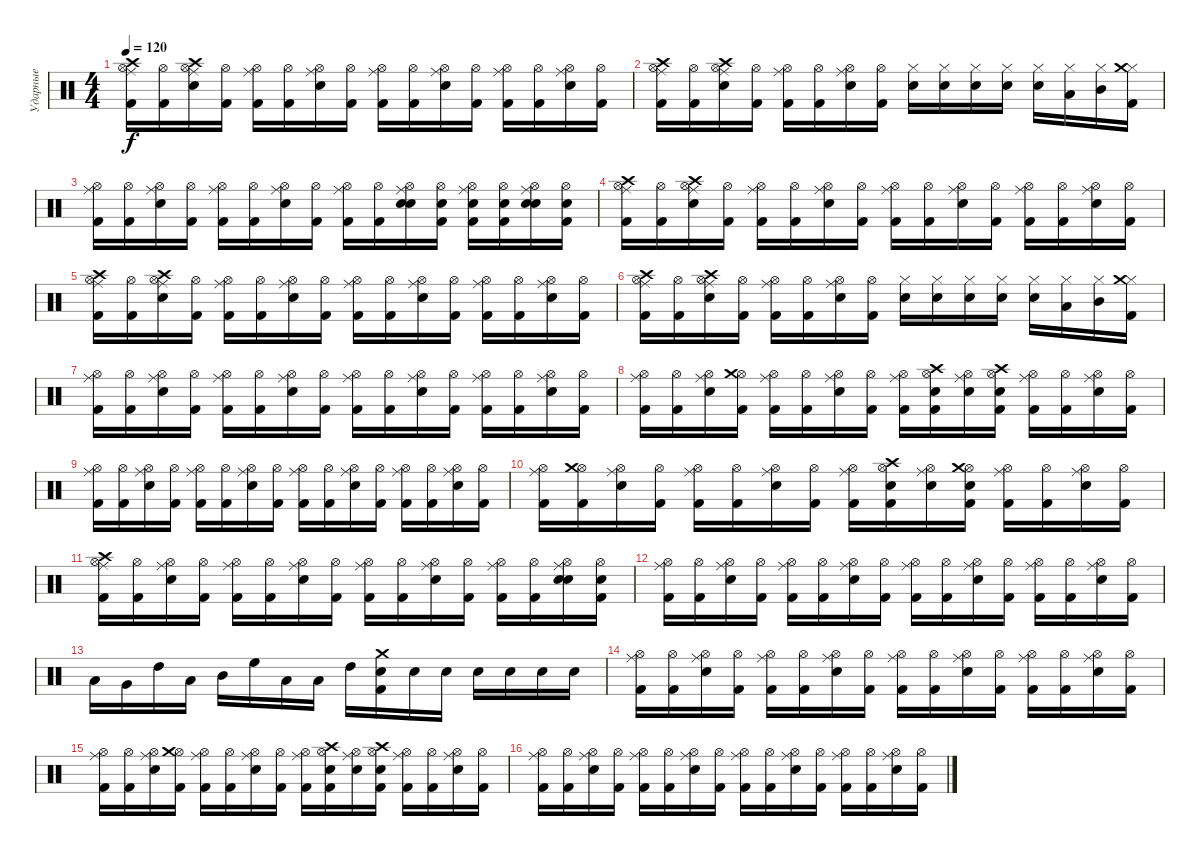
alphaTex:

\track ("Ударные" "Ударные") {instrument percussion}
\staff {score}
\articulation defaults
\ts (4 4)
\tempo 120
\clef neutral
\ks c
("Hi-Hat (open)" "Ride (middle)" "Kick (hit) 2" "Crash high (hit)").16{dy f} ("Hi-Hat (open)" "Kick (hit) 2").16 ("Hi-Hat (open)" "Ride (middle)" "Snare (hit) 2" "Crash high (hit)").16 ("Hi-Hat (open)" "Kick (hit) 2").16 ("Hi-Hat (open)" "Ride (middle)" "Kick (hit) 2").16 ("Hi-Hat (open)" "Kick (hit) 2").16 ("Hi-Hat (open)" "Ride (middle)" "Snare (hit) 2").16 ("Hi-Hat (open)" "Kick (hit) 2").16 ("Hi-Hat (open)" "Ride (middle)" "Kick (hit) 2").16 ("Hi-Hat (open)" "Kick (hit) 2").16 ("Hi-Hat (open)" "Ride (middle)" "Snare (hit) 2").16 ("Hi-Hat (open)" "Kick (hit) 2").16 ("Hi-Hat (open)" "Ride (middle)" "Kick (hit) 2").16 ("Hi-Hat (open)" "Kick (hit) 2").16 ("Hi-Hat (open)" "Ride (middle)" "Snare (hit) 2").16 ("Hi-Hat (open)" "Kick (hit) 2").16 |
("Hi-Hat (open)" "Ride (middle)" "Kick (hit) 2" "Crash high (hit)").16 ("Hi-Hat (open)" "Kick (hit) 2").16 ("Hi-Hat (open)" "Ride (middle)" "Snare (hit) 2" "Crash high (hit)").16 ("Hi-Hat (open)" "Kick (hit) 2").16 ("Hi-Hat (open)" "Ride (middle)" "Kick (hit) 2").16 ("Hi-Hat (open)" "Kick (hit) 2").16 ("Hi-Hat (open)" "Ride (middle)" "Snare (hit) 2").16 ("Hi-Hat (open)" "Kick (hit) 2").16 ("Hi-Hat (closed)" "Electric Snare (hit)").16 ("Hi-Hat (closed)" "Electric Snare (hit)").16 ("Hi-Hat (closed)" "Electric Snare (hit)").16 ("Hi-Hat (closed)" "Electric Snare (hit)").16 ("Hi-Hat (closed)" "Electric Snare (hit)").16 ("Hi-Hat (closed)" "Low Floor Tom (hit)").16 ("Hi-Hat (closed)" "Mid Tom (hit)").16 ("Hi-Hat (closed)" "Kick (hit) 2" "Crash medium (hit)").16 |
("Hi-Hat (open)" "Ride (middle)" "Kick (hit) 2").16 ("Hi-Hat (open)" "Kick (hit) 2").16 ("Hi-Hat (open)" "Ride (middle)" "Snare (hit) 2").16 ("Hi-Hat (open)" "Kick (hit) 2").16 ("Hi-Hat (open)" "Ride (middle)" "Kick (hit) 2").16 ("Hi-Hat (open)" "Kick (hit) 2").16 ("Hi-Hat (open)" "Ride (middle)" "Snare (hit) 2").16 ("Hi-Hat (open)" "Kick (hit) 2").16 ("Hi-Hat (open)" "Ride (middle)" "Kick (hit) 2").16 ("Hi-Hat (open)" "Kick (hit) 2").16 ("Hi-Hat (open)" "Ride (middle)" "Snare (hit) 2" "Electric Snare (hit)").16 ("Hi-Hat (open)" "Kick (hit) 2" "Electric Snare (hit)").16 ("Hi-Hat (open)" "Ride (middle)" "Kick (hit) 2" "Electric Snare (hit)").16 ("Hi-Hat (open)" "Kick (hit) 2" "Electric Snare (hit)").16 ("Hi-Hat (open)" "Ride (middle)" "Snare (hit) 2" "Electric Snare (hit)").16 ("Hi-Hat (open)" "Kick (hit) 2" "Electric Snare (hit)").16 |
("Hi-Hat (open)" "Ride (middle)" "Kick (hit) 2" "Crash high (hit)").16 ("Hi-Hat (open)" "Kick (hit) 2").16 ("Hi-Hat (open)" "Ride (middle)" "Snare (hit) 2" "Crash high (hit)").16 ("Hi-Hat (open)" "Kick (hit) 2").16 ("Hi-Hat (open)" "Ride (middle)" "Kick (hit) 2").16 ("Hi-Hat (open)" "Kick (hit) 2").16 ("Hi-Hat (open)" "Ride (middle)" "Snare (hit) 2").16 ("Hi-Hat (open)" "Kick (hit) 2").16 ("Hi-Hat (open)" "Ride (middle)" "Kick (hit) 2").16 ("Hi-Hat (open)" "Kick (hit) 2").16 ("Hi-Hat (open)" "Ride (middle)" "Snare (hit) 2").16 ("Hi-Hat (open)" "Kick (hit) 2").16 ("Hi-Hat (open)" "Ride (middle)" "Kick (hit) 2").16 ("Hi-Hat (open)" "Kick (hit) 2").16 ("Hi-Hat (open)" "Ride (middle)" "Snare (hit) 2").16 ("Hi-Hat (open)" "Kick (hit) 2").16 |
("Hi-Hat (open)" "Ride (middle)" "Kick (hit) 2" "Crash high (hit)").16 ("Hi-Hat (open)" "Kick (hit) 2").16 ("Hi-Hat (open)" "Ride (middle)" "Snare (hit) 2" "Crash high (hit)").16 ("Hi-Hat (open)" "Kick (hit) 2").16 ("Hi-Hat (open)" "Ride (middle)" "Kick (hit) 2").16 ("Hi-Hat (open)" "Kick (hit) 2").16 ("Hi-Hat (open)" "Ride (middle)" "Snare (hit) 2").16 ("Hi-Hat (open)" "Kick (hit) 2").16 ("Hi-Hat (open)" "Ride (middle)" "Kick (hit) 2").16 ("Hi-Hat (open)" "Kick (hit) 2").16 ("Hi-Hat (open)" "Ride (middle)" "Snare (hit) 2").16 ("Hi-Hat (open)" "Kick (hit) 2").16 ("Hi-Hat (open)" "Ride (middle)" "Kick (hit) 2").16 ("Hi-Hat (open)" "Kick (hit) 2").16 ("Hi-Hat (open)" "Ride (middle)" "Snare (hit) 2").16 ("Hi-Hat (open)" "Kick (hit) 2").16 |
("Hi-Hat (open)" "Ride (middle)" "Kick (hit) 2" "Crash high (hit)").16 ("Hi-Hat (open)" "Kick (hit) 2").16 ("Hi-Hat (open)" "Ride (middle)" "Snare (hit) 2" "Crash high (hit)").16 ("Hi-Hat (open)" "Kick (hit) 2").16 ("Hi-Hat (open)" "Ride (middle)" "Kick (hit) 2").16 ("Hi-Hat (open)" "Kick (hit) 2").16 ("Hi-Hat (open)" "Ride (middle)" "Snare (hit) 2").16 ("Hi-Hat (open)" "Kick (hit) 2").16 ("Hi-Hat (closed)" "Electric Snare (hit)").16 ("Hi-Hat (closed)" "Electric Snare (hit)").16 ("Hi-Hat (closed)" "Electric Snare (hit)").16 ("Hi-Hat (closed)" "Electric Snare (hit)").16 ("Hi-Hat (closed)" "Electric Snare (hit)").16 ("Hi-Hat (closed)" "Low Floor Tom (hit)").16 ("Hi-Hat (closed)" "Mid Tom (hit)").16 ("Hi-Hat (closed)" "Kick (hit) 2" "Crash medium (hit)").16 |
("Hi-Hat (open)" "Ride (middle)" "Kick (hit) 2").16 ("Hi-Hat (open)" "Kick (hit) 2").16 ("Hi-Hat (open)" "Ride (middle)" "Snare (hit) 2").16 ("Hi-Hat (open)" "Kick (hit) 2").16 ("Hi-Hat (open)" "Ride (middle)" "Kick (hit) 2").16 ("Hi-Hat (open)" "Kick (hit) 2").16 ("Hi-Hat (open)" "Ride (middle)" "Snare (hit) 2").16 ("Hi-Hat (open)" "Kick (hit) 2").16 ("Hi-Hat (open)" "Ride (middle)" "Kick (hit) 2").16 ("Hi-Hat (open)" "Kick (hit) 2").16 ("Hi-Hat (open)" "Ride (middle)" "Snare (hit) 2").16 ("Hi-Hat (open)" "Kick (hit) 2").16 ("Hi-Hat (open)" "Ride (middle)" "Kick (hit) 2").16 ("Hi-Hat (open)" "Kick (hit) 2").16 ("Hi-Hat (open)" "Ride (middle)" "Snare (hit) 2").16 ("Hi-Hat (open)" "Kick (hit) 2").16 |
("Hi-Hat (open)" "Ride (middle)" "Kick (hit) 2").16 ("Hi-Hat (open)" "Kick (hit) 2").16 ("Hi-Hat (open)" "Ride (middle)" "Snare (hit) 2").16 ("Hi-Hat (open)" "Kick (hit) 2" "Crash medium (hit)").16 ("Hi-Hat (open)" "Ride (middle)" "Kick (hit) 2").16 ("Hi-Hat (open)" "Kick (hit) 2").16 ("Hi-Hat (open)" "Ride (middle)" "Snare (hit) 2").16 ("Hi-Hat (open)" "Kick (hit) 2").16 ("Hi-Hat (open)" "Ride (middle)" "Kick (hit) 2").16 ("Hi-Hat (open)" "Kick (hit) 2" "Crash high (hit)" "Snare (hit) 2").16 ("Hi-Hat (open)" "Ride (middle)" "Snare (hit) 2").16 ("Hi-Hat (open)" "Kick (hit) 2" "Crash high (hit)" "Snare (hit) 2").16 ("Hi-Hat (open)" "Ride (middle)" "Kick (hit) 2").16 ("Hi-Hat (open)" "Kick (hit) 2").16 ("Hi-Hat (open)" "Ride (middle)" "Snare (hit) 2").16 ("Hi-Hat (open)" "Kick (hit) 2").16 |
("Hi-Hat (open)" "Ride (middle)" "Kick (hit) 2").16 ("Hi-Hat (open)" "Kick (hit) 2").16 ("Hi-Hat (open)" "Ride (middle)" "Snare (hit) 2").16 ("Hi-Hat (open)" "Kick (hit) 2").16 ("Hi-Hat (open)" "Ride (middle)" "Kick (hit) 2").16 ("Hi-Hat (open)" "Kick (hit) 2").16 ("Hi-Hat (open)" "Ride (middle)" "Snare (hit) 2").16 ("Hi-Hat (open)" "Kick (hit) 2").16 ("Hi-Hat (open)" "Ride (middle)" "Kick (hit) 2").16 ("Hi-Hat (open)" "Kick (hit) 2").16 ("Hi-Hat (open)" "Ride (middle)" "Snare (hit) 2").16 ("Hi-Hat (open)" "Kick (hit) 2").16 ("Hi-Hat (open)" "Ride (middle)" "Kick (hit) 2").16 ("Hi-Hat (open)" "Kick (hit) 2").16 ("Hi-Hat (open)" "Ride (middle)" "Snare (hit) 2").16 ("Hi-Hat (open)" "Kick (hit) 2").16 |
("Hi-Hat (open)" "Ride (middle)" "Kick (hit) 2").16 ("Hi-Hat (open)" "Kick (hit) 2" "Crash medium (hit)").16 ("Hi-Hat (open)" "Ride (middle)" "Snare (hit) 2").16 ("Hi-Hat (open)" "Kick (hit) 2").16 ("Hi-Hat (open)" "Ride (middle)" "Kick (hit) 2").16 ("Hi-Hat (open)" "Kick (hit) 2").16 ("Hi-Hat (open)" "Ride (middle)" "Snare (hit) 2").16 ("Hi-Hat (open)" "Kick (hit) 2").16 ("Hi-Hat (open)" "Ride (middle)" "Kick (hit) 2").16 ("Hi-Hat (open)" "Kick (hit) 2" "Electric Snare (hit)" "Crash high (hit)").16 ("Hi-Hat (open)" "Ride (middle)" "Snare (hit) 2").16 ("Hi-Hat (open)" "Kick (hit) 2" "Crash medium (hit)" "Electric Snare (hit)").16 ("Hi-Hat (open)" "Ride (middle)" "Kick (hit) 2").16 ("Hi-Hat (open)" "Kick (hit) 2").16 ("Hi-Hat (open)" "Ride (middle)" "Snare (hit) 2").16 ("Hi-Hat (open)" "Kick (hit) 2").16 |
("Hi-Hat (open)" "Ride (middle)" "Kick (hit) 2" "Crash high (hit)").16 ("Hi-Hat (open)" "Kick (hit) 2").16 ("Hi-Hat (open)" "Ride (middle)" "Snare (hit) 2").16 ("Hi-Hat (open)" "Kick (hit) 2").16 ("Hi-Hat (open)" "Ride (middle)" "Kick (hit) 2").16 ("Hi-Hat (open)" "Kick (hit) 2").16 ("Hi-Hat (open)" "Ride (middle)" "Snare (hit) 2").16 ("Hi-Hat (open)" "Kick (hit) 2").16 ("Hi-Hat (open)" "Ride (middle)" "Kick (hit) 2").16 ("Hi-Hat (open)" "Kick (hit) 2").16 ("Hi-Hat (open)" "Ride (middle)" "Snare (hit) 2").16 ("Hi-Hat (open)" "Kick (hit) 2").16 ("Hi-Hat (open)" "Ride (middle)" "Kick (hit) 2").16 ("Hi-Hat (open)" "Kick (hit) 2").16 ("Hi-Hat (open)" "Ride (middle)" "Snare (hit) 2" "Electric Snare (hit)").16 ("Hi-Hat (open)" "Kick (hit) 2" "Electric Snare (hit)").16 |
("Hi-Hat (open)" "Ride (middle)" "Kick (hit) 2").16 ("Hi-Hat (open)" "Kick (hit) 2").16 ("Hi-Hat (open)" "Ride (middle)" "Snare (hit) 2").16 ("Hi-Hat (open)" "Kick (hit) 2").16 ("Hi-Hat (open)" "Ride (middle)" "Kick (hit) 2").16 ("Hi-Hat (open)" "Kick (hit) 2").16 ("Hi-Hat (open)" "Ride (middle)" "Snare (hit) 2").16 ("Hi-Hat (open)" "Kick (hit) 2").16 ("Hi-Hat (open)" "Ride (middle)" "Kick (hit) 2").16 ("Hi-Hat (open)" "Kick (hit) 2").16 ("Hi-Hat (open)" "Ride (middle)" "Snare (hit) 2").16 ("Hi-Hat (open)" "Kick (hit) 2").16 ("Hi-Hat (open)" "Ride (middle)" "Kick (hit) 2").16 ("Hi-Hat (open)" "Kick (hit) 2").16 ("Hi-Hat (open)" "Ride (middle)" "Snare (hit) 2").16 ("Hi-Hat (open)" "Kick (hit) 2").16 |
"Low Floor Tom (hit)".16 "Very Low Tom (hit)".16 "High Tom (hit)".16 "Low Tom (hit)".16 "Mid Tom (hit)".16 "High Floor Tom (hit)".16 "Low Floor Tom (hit)".16 "Low Tom (hit)".16 "High Tom (hit)".16 ("Electric Snare (hit)" "Kick (hit) 2" "Crash medium (hit)").16 "Electric Snare (hit)".16 "Electric Snare (hit)".16 "Electric Snare (hit)".16 "Electric Snare (hit)".16 "Electric Snare (hit)".16 "Electric Snare (hit)".16 |
("Hi-Hat (open)" "Ride (middle)" "Kick (hit) 2").16 ("Hi-Hat (open)" "Kick (hit) 2").16 ("Hi-Hat (open)" "Ride (middle)" "Snare (hit) 2").16 ("Hi-Hat (open)" "Kick (hit) 2").16 ("Hi-Hat (open)" "Ride (middle)" "Kick (hit) 2").16 ("Hi-Hat (open)" "Kick (hit) 2").16 ("Hi-Hat (open)" "Ride (middle)" "Snare (hit) 2").16 ("Hi-Hat (open)" "Kick (hit) 2").16 ("Hi-Hat (open)" "Ride (middle)" "Kick (hit) 2").16 ("Hi-Hat (open)" "Kick (hit) 2").16 ("Hi-Hat (open)" "Ride (middle)" "Snare (hit) 2").16 ("Hi-Hat (open)" "Kick (hit) 2").16 ("Hi-Hat (open)" "Ride (middle)" "Kick (hit) 2").16 ("Hi-Hat (open)" "Kick (hit) 2").16 ("Hi-Hat (open)" "Ride (middle)" "Snare (hit) 2").16 ("Hi-Hat (open)" "Kick (hit) 2").16 |
("Hi-Hat (open)" "Ride (middle)" "Kick (hit) 2").16 ("Hi-Hat (open)" "Kick (hit) 2").16 ("Hi-Hat (open)" "Ride (middle)" "Snare (hit) 2").16 ("Hi-Hat (open)" "Kick (hit) 2" "Crash medium (hit)").16 ("Hi-Hat (open)" "Ride (middle)" "Kick (hit) 2").16 ("Hi-Hat (open)" "Kick (hit) 2").16 ("Hi-Hat (open)" "Ride (middle)" "Snare (hit) 2").16 ("Hi-Hat (open)" "Kick (hit) 2").16 ("Hi-Hat (open)" "Ride (middle)" "Kick (hit) 2").16 ("Hi-Hat (open)" "Kick (hit) 2" "Crash high (hit)" "Snare (hit) 2").16 ("Hi-Hat (open)" "Ride (middle)" "Snare (hit) 2").16 ("Hi-Hat (open)" "Kick (hit) 2" "Crash high (hit)" "Snare (hit) 2").16 ("Hi-Hat (open)" "Ride (middle)" "Kick (hit) 2").16 ("Hi-Hat (open)" "Kick (hit) 2").16 ("Hi-Hat (open)" "Ride (middle)" "Snare (hit) 2").16 ("Hi-Hat (open)" "Kick (hit) 2").16 |
("Hi-Hat (open)" "Ride (middle)" "Kick (hit) 2").16 ("Hi-Hat (open)" "Kick (hit) 2").16 ("Hi-Hat (open)" "Ride (middle)" "Snare (hit) 2").16 ("Hi-Hat (open)" "Kick (hit) 2").16 ("Hi-Hat (open)" "Ride (middle)" "Kick (hit) 2").16 ("Hi-Hat (open)" "Kick (hit) 2").16 ("Hi-Hat (open)" "Ride (middle)" "Snare (hit) 2").16 ("Hi-Hat (open)" "Kick (hit) 2").16 ("Hi-Hat (open)" "Ride (middle)" "Kick (hit) 2").16 ("Hi-Hat (open)" "Kick (hit) 2").16 ("Hi-Hat (open)" "Ride (middle)" "Snare (hit) 2").16 ("Hi-Hat (open)" "Kick (hit) 2").16 ("Hi-Hat (open)" "Ride (middle)" "Kick (hit) 2").16 ("Hi-Hat (open)" "Kick (hit) 2").16 ("Hi-Hat (open)" "Ride (middle)" "Snare (hit) 2").16 ("Hi-Hat (open)" "Kick (hit) 2").16
